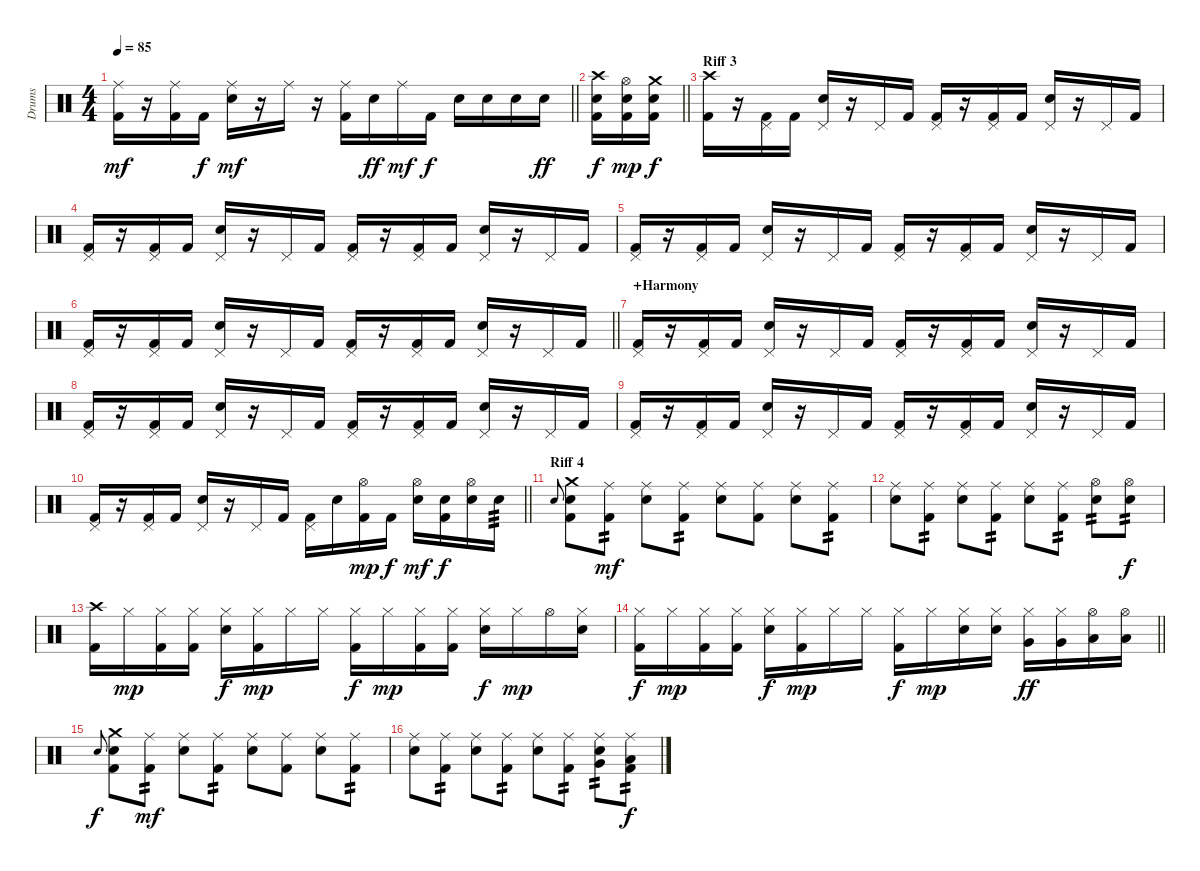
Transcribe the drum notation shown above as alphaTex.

\track ("Drums" "Drums") {instrument percussion}
\staff {score}
\articulation defaults
\ts (4 4)
\tempo 85
\clef neutral
\barLineRight lightlight
\ks c
("Ride (middle)" "Kick (hit) 2").16{dy mf} r.16 ("Ride (middle)" "Kick (hit) 2").16 "Kick (hit) 2".16{dy f} ("Ride (middle)" "Electric Snare (hit)").16{dy mf} r.16 "Ride (middle)".16 r.16 ("Ride (middle)" "Kick (hit) 2").16 "Electric Snare (hit)".16{dy ff} "Ride (middle)".16{dy mf} "Kick (hit) 2".16{dy f} "Electric Snare (hit)".16 "Electric Snare (hit)".16 "Electric Snare (hit)".16 "Electric Snare (hit)".16{dy ff} |
\section ("" "")
\barLineRight lightlight
("Crash high (hit)" "Electric Snare (hit)" "Kick (hit) 2").16{dy f} ("Hi-Hat (open)" "Electric Snare (hit)" "Kick (hit) 2").16{dy mp} ("Crash medium (hit)" "Electric Snare (hit)" "Kick (hit) 2").16{dy f} |
\section ("" "Riff 3")
("Crash high (hit)" "Kick (hit) 2").16 r.16 ("Pedal Hi-Hat (hit)" "Kick (hit) 2").16 "Kick (hit) 2".16 ("Pedal Hi-Hat (hit)" "Electric Snare (hit)").16 r.16 "Pedal Hi-Hat (hit)".16 "Kick (hit) 2".16 ("Pedal Hi-Hat (hit)" "Kick (hit) 2").16 r.16 ("Pedal Hi-Hat (hit)" "Kick (hit) 2").16 "Kick (hit) 2".16 ("Pedal Hi-Hat (hit)" "Electric Snare (hit)").16 r.16 "Pedal Hi-Hat (hit)".16 "Kick (hit) 2".16 |
("Pedal Hi-Hat (hit)" "Kick (hit) 2").16 r.16 ("Pedal Hi-Hat (hit)" "Kick (hit) 2").16 "Kick (hit) 2".16 ("Pedal Hi-Hat (hit)" "Electric Snare (hit)").16 r.16 "Pedal Hi-Hat (hit)".16 "Kick (hit) 2".16 ("Pedal Hi-Hat (hit)" "Kick (hit) 2").16 r.16 ("Pedal Hi-Hat (hit)" "Kick (hit) 2").16 "Kick (hit) 2".16 ("Pedal Hi-Hat (hit)" "Electric Snare (hit)").16 r.16 "Pedal Hi-Hat (hit)".16 "Kick (hit) 2".16 |
("Pedal Hi-Hat (hit)" "Kick (hit) 2").16 r.16 ("Pedal Hi-Hat (hit)" "Kick (hit) 2").16 "Kick (hit) 2".16 ("Pedal Hi-Hat (hit)" "Electric Snare (hit)").16 r.16 "Pedal Hi-Hat (hit)".16 "Kick (hit) 2".16 ("Pedal Hi-Hat (hit)" "Kick (hit) 2").16 r.16 ("Pedal Hi-Hat (hit)" "Kick (hit) 2").16 "Kick (hit) 2".16 ("Pedal Hi-Hat (hit)" "Electric Snare (hit)").16 r.16 "Pedal Hi-Hat (hit)".16 "Kick (hit) 2".16 |
\barLineRight lightlight
("Pedal Hi-Hat (hit)" "Kick (hit) 2").16 r.16 ("Pedal Hi-Hat (hit)" "Kick (hit) 2").16 "Kick (hit) 2".16 ("Pedal Hi-Hat (hit)" "Electric Snare (hit)").16 r.16 "Pedal Hi-Hat (hit)".16 "Kick (hit) 2".16 ("Pedal Hi-Hat (hit)" "Kick (hit) 2").16 r.16 ("Pedal Hi-Hat (hit)" "Kick (hit) 2").16 "Kick (hit) 2".16 ("Pedal Hi-Hat (hit)" "Electric Snare (hit)").16 r.16 "Pedal Hi-Hat (hit)".16 "Kick (hit) 2".16 |
\section ("" "+Harmony")
("Pedal Hi-Hat (hit)" "Kick (hit) 2").16 r.16 ("Pedal Hi-Hat (hit)" "Kick (hit) 2").16 "Kick (hit) 2".16 ("Pedal Hi-Hat (hit)" "Electric Snare (hit)").16 r.16 "Pedal Hi-Hat (hit)".16 "Kick (hit) 2".16 ("Pedal Hi-Hat (hit)" "Kick (hit) 2").16 r.16 ("Pedal Hi-Hat (hit)" "Kick (hit) 2").16 "Kick (hit) 2".16 ("Pedal Hi-Hat (hit)" "Electric Snare (hit)").16 r.16 "Pedal Hi-Hat (hit)".16 "Kick (hit) 2".16 |
("Pedal Hi-Hat (hit)" "Kick (hit) 2").16 r.16 ("Pedal Hi-Hat (hit)" "Kick (hit) 2").16 "Kick (hit) 2".16 ("Pedal Hi-Hat (hit)" "Electric Snare (hit)").16 r.16 "Pedal Hi-Hat (hit)".16 "Kick (hit) 2".16 ("Pedal Hi-Hat (hit)" "Kick (hit) 2").16 r.16 ("Pedal Hi-Hat (hit)" "Kick (hit) 2").16 "Kick (hit) 2".16 ("Pedal Hi-Hat (hit)" "Electric Snare (hit)").16 r.16 "Pedal Hi-Hat (hit)".16 "Kick (hit) 2".16 |
("Pedal Hi-Hat (hit)" "Kick (hit) 2").16 r.16 ("Pedal Hi-Hat (hit)" "Kick (hit) 2").16 "Kick (hit) 2".16 ("Pedal Hi-Hat (hit)" "Electric Snare (hit)").16 r.16 "Pedal Hi-Hat (hit)".16 "Kick (hit) 2".16 ("Pedal Hi-Hat (hit)" "Kick (hit) 2").16 r.16 ("Pedal Hi-Hat (hit)" "Kick (hit) 2").16 "Kick (hit) 2".16 ("Pedal Hi-Hat (hit)" "Electric Snare (hit)").16 r.16 "Pedal Hi-Hat (hit)".16 "Kick (hit) 2".16 |
\barLineRight lightlight
("Pedal Hi-Hat (hit)" "Kick (hit) 2").16 r.16 ("Pedal Hi-Hat (hit)" "Kick (hit) 2").16 "Kick (hit) 2".16 ("Pedal Hi-Hat (hit)" "Electric Snare (hit)").16 r.16 "Pedal Hi-Hat (hit)".16 "Kick (hit) 2".16 ("Pedal Hi-Hat (hit)" "Kick (hit) 2").16 "Electric Snare (hit)".16 ("Hi-Hat (open)" "Kick (hit) 2").16{dy mp} "Kick (hit) 2".16{dy f} ("Hi-Hat (open)" "Electric Snare (hit)").16{dy mf} ("Electric Snare (hit)" "Kick (hit) 2").16{dy f} ("Hi-Hat (open)" "Electric Snare (hit)").16 "Electric Snare (hit)".16{tp 3} |
\section ("" "Riff 4")
"Electric Snare (hit)".8{gr onbeat} ("Crash medium (hit)" "Electric Snare (hit)" "Kick (hit) 2").8 ("Ride (middle)" "Kick (hit) 2").8{tp 2 dy mf} ("Ride (middle)" "Electric Snare (hit)").8 ("Ride (middle)" "Kick (hit) 2").8{tp 2} ("Ride (middle)" "Electric Snare (hit)").8 ("Ride (middle)" "Kick (hit) 2").8 ("Ride (middle)" "Electric Snare (hit)").8 ("Ride (middle)" "Kick (hit) 2").8{tp 2} |
("Ride (middle)" "Electric Snare (hit)").8 ("Ride (middle)" "Kick (hit) 2").8{tp 2} ("Ride (middle)" "Electric Snare (hit)").8 ("Ride (middle)" "Kick (hit) 2").8{tp 2} ("Ride (middle)" "Electric Snare (hit)").8 ("Ride (middle)" "Kick (hit) 2").8{tp 2} ("Hi-Hat (open)" "Electric Snare (hit)").8{tp 2} ("Hi-Hat (open)" "Electric Snare (hit)").8{tp 2 dy f} |
("Crash high (hit)" "Kick (hit) 2").16 "Hi-Hat (closed)".16{dy mp} ("Hi-Hat (closed)" "Kick (hit) 2").16 ("Hi-Hat (closed)" "Kick (hit) 2").16 ("Hi-Hat (closed)" "Electric Snare (hit)").16{dy f} ("Hi-Hat (closed)" "Kick (hit) 2").16{dy mp} "Hi-Hat (closed)".16 "Hi-Hat (closed)".16 ("Hi-Hat (closed)" "Kick (hit) 2").16{dy f} "Hi-Hat (closed)".16{dy mp} ("Hi-Hat (closed)" "Kick (hit) 2").16 ("Hi-Hat (closed)" "Kick (hit) 2").16 ("Hi-Hat (closed)" "Electric Snare (hit)").16{dy f} "Hi-Hat (closed)".16{dy mp} "Hi-Hat (open)".16 ("Hi-Hat (closed)" "Electric Snare (hit)").16 |
\barLineRight lightlight
("Hi-Hat (closed)" "Kick (hit) 2").16{dy f} "Hi-Hat (closed)".16{dy mp} ("Hi-Hat (closed)" "Kick (hit) 2").16 ("Hi-Hat (closed)" "Kick (hit) 2").16 ("Hi-Hat (closed)" "Electric Snare (hit)").16{dy f} ("Hi-Hat (closed)" "Kick (hit) 2").16{dy mp} "Hi-Hat (closed)".16 "Hi-Hat (closed)".16 ("Hi-Hat (closed)" "Kick (hit) 2").16{dy f} "Hi-Hat (closed)".16{dy mp} ("Hi-Hat (closed)" "Electric Snare (hit)").16 ("Hi-Hat (closed)" "Electric Snare (hit)").16 ("Hi-Hat (closed)" "Very Low Tom (hit)").16{dy ff} ("Hi-Hat (closed)" "Very Low Tom (hit)").16 ("Hi-Hat (open)" "Low Floor Tom (hit)").16 ("Hi-Hat (open)" "Low Floor Tom (hit)").16 |
\section ("" "")
"Electric Snare (hit)".8{gr onbeat dy f} ("Crash medium (hit)" "Electric Snare (hit)" "Kick (hit) 2").8 ("Ride (middle)" "Kick (hit) 2").8{tp 2 dy mf} ("Ride (middle)" "Electric Snare (hit)").8 ("Ride (middle)" "Kick (hit) 2").8{tp 2} ("Ride (middle)" "Electric Snare (hit)").8 ("Ride (middle)" "Kick (hit) 2").8 ("Ride (middle)" "Electric Snare (hit)").8 ("Ride (middle)" "Kick (hit) 2").8{tp 2} |
("Ride (middle)" "Electric Snare (hit)").8 ("Ride (middle)" "Kick (hit) 2").8{tp 2} ("Ride (middle)" "Electric Snare (hit)").8 ("Ride (middle)" "Kick (hit) 2").8{tp 2} ("Ride (middle)" "Electric Snare (hit)").8 ("Ride (middle)" "Kick (hit) 2").8{tp 2} ("Ride (middle)" "Very Low Tom (hit)" "Electric Snare (hit)").8{tp 2} ("Ride (middle)" "Low Floor Tom (hit)" "Kick (hit) 2").8{tp 2 dy f}
